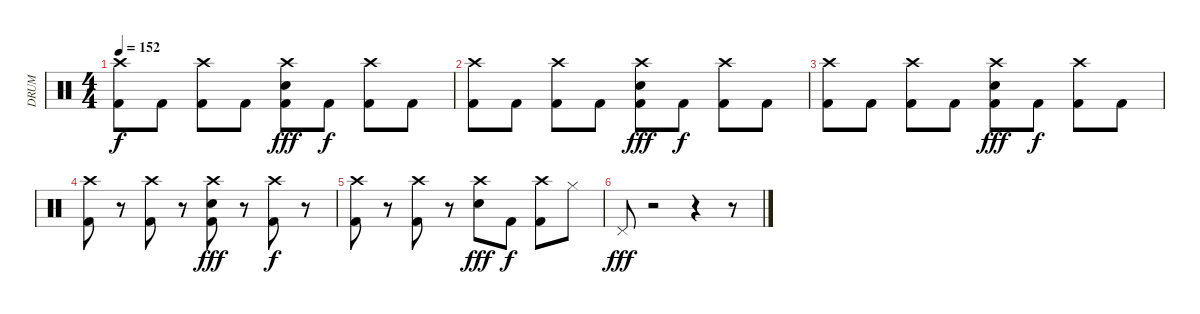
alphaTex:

\track ("DRUM" "DRUM") {instrument percussion}
\staff {score}
\articulation defaults
\ts (4 4)
\tempo 152
\clef neutral
\ks c
("Crash high (hit)" "Kick (hit) 2").8{dy f} "Kick (hit) 2".8 ("Crash high (hit)" "Kick (hit) 2").8 "Kick (hit) 2".8 ("Electric Snare (hit)" "Crash high (hit)" "Kick (hit) 2").8{dy fff} "Kick (hit) 2".8{dy f} ("Crash high (hit)" "Kick (hit) 2").8 "Kick (hit) 2".8 |
("Crash high (hit)" "Kick (hit) 2").8 "Kick (hit) 2".8 ("Crash high (hit)" "Kick (hit) 2").8 "Kick (hit) 2".8 ("Electric Snare (hit)" "Crash high (hit)" "Kick (hit) 2").8{dy fff} "Kick (hit) 2".8{dy f} ("Crash high (hit)" "Kick (hit) 2").8 "Kick (hit) 2".8 |
("Crash high (hit)" "Kick (hit) 2").8 "Kick (hit) 2".8 ("Crash high (hit)" "Kick (hit) 2").8 "Kick (hit) 2".8 ("Electric Snare (hit)" "Crash high (hit)" "Kick (hit) 2").8{dy fff} "Kick (hit) 2".8{dy f} ("Crash high (hit)" "Kick (hit) 2").8 "Kick (hit) 2".8 |
("Kick (hit) 2" "Crash high (hit)").8 r.8 ("Kick (hit) 2" "Crash high (hit)").8 r.8 ("Kick (hit) 2" "Crash high (hit)" "Electric Snare (hit)").8{dy fff} r.8 ("Kick (hit) 2" "Crash high (hit)").8{dy f} r.8 |
("Kick (hit) 2" "Crash high (hit)").8 r.8 ("Kick (hit) 2" "Crash high (hit)").8 r.8 ("Crash high (hit)" "Electric Snare (hit)").8{dy fff} "Kick (hit) 2".8{dy f} ("Crash high (hit)" "Kick (hit) 2").8 "Hi-Hat (closed)".8 |
"Pedal Hi-Hat (hit)".8{dy fff} r.2 r.4 r.8
